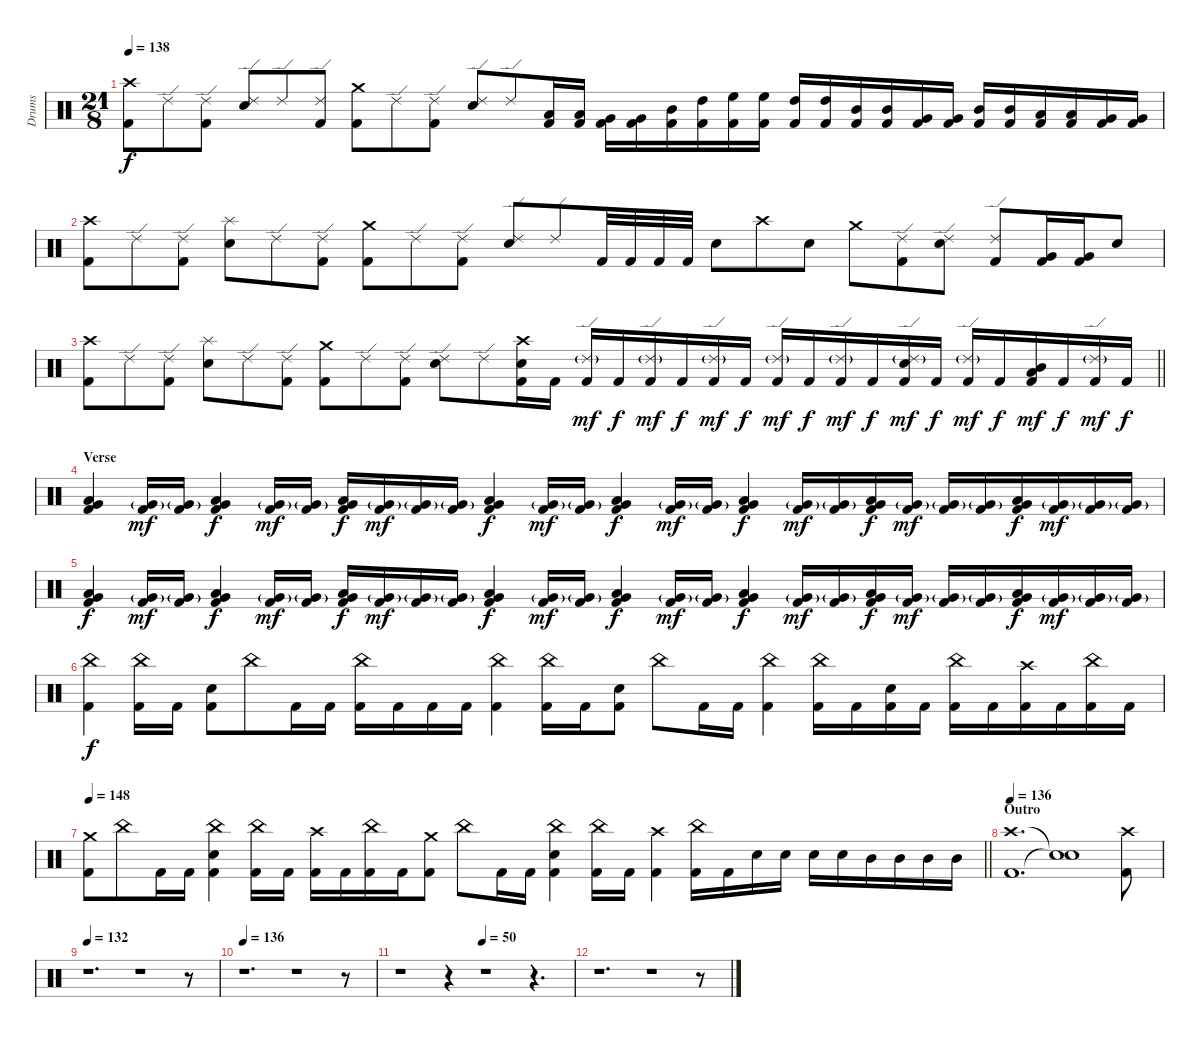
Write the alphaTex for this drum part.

\track ("Drums" "Drums") {instrument percussion}
\staff {score}
\articulation defaults
\ts (21 8)
\tempo 138
\clef neutral
\ks c
("Crash high (hit)" "Kick (hit) 2").8{dy f} "Ride (edge) 2".8 ("Ride (edge) 2" "Kick (hit) 2").8 ("Ride (edge) 2" "Snare (hit) 2").8 "Ride (edge) 2".8 ("Ride (edge) 2" "Kick (hit) 2").8 ("Crash medium (hit)" "Kick (hit) 2").8 "Ride (edge) 2".8 ("Ride (edge) 2" "Kick (hit) 2").8 ("Ride (edge) 2" "Snare (hit) 2").8 "Ride (edge) 2".8 ("Low Floor Tom (hit)" "Kick (hit) 2").16 ("Low Floor Tom (hit)" "Kick (hit) 2").16 ("Very Low Tom (hit)" "Kick (hit) 2").16 ("Very Low Tom (hit)" "Kick (hit) 2").16 ("Mid Tom (hit)" "Kick (hit) 2").16 ("High Tom (hit)" "Kick (hit) 2").16 ("High Floor Tom (hit)" "Kick (hit) 2").16 ("High Floor Tom (hit)" "Kick (hit) 2").16 ("High Tom (hit)" "Kick (hit) 2").16 ("High Tom (hit)" "Kick (hit) 2").16 ("Mid Tom (hit)" "Kick (hit) 2").16 ("Mid Tom (hit)" "Kick (hit) 2").16 ("Very Low Tom (hit)" "Kick (hit) 2").16 ("Very Low Tom (hit)" "Kick (hit) 2").16 ("Mid Tom (hit)" "Kick (hit) 2").16 ("Mid Tom (hit)" "Kick (hit) 2").16 ("Low Tom (hit)" "Kick (hit) 2").16 ("Low Tom (hit)" "Kick (hit) 2").16 ("Very Low Tom (hit)" "Kick (hit) 2").16 ("Very Low Tom (hit)" "Kick (hit) 2").16 |
("Crash high (hit)" "Kick (hit) 2").8 "Ride (edge) 2".8 ("Ride (edge) 2" "Kick (hit) 2").8 ("Splash (hit)" "Snare (hit) 2").8 "Ride (edge) 2".8 ("Ride (edge) 2" "Kick (hit) 2").8 ("Crash medium (hit)" "Kick (hit) 2").8 "Ride (edge) 2".8 ("Ride (edge) 2" "Kick (hit) 2").8 ("Ride (edge) 2" "Snare (hit) 2").8 "Ride (edge) 2".8 "Kick (hit) 2".32 "Kick (hit) 2".32 "Kick (hit) 2".32 "Kick (hit) 2".32 "Snare (hit) 2".8 "Crash high (hit)".8 "Snare (hit) 2".8 "Crash medium (hit)".8 ("Ride (edge) 2" "Kick (hit) 2").8 ("Ride (edge) 2" "Snare (hit) 2").8 ("Ride (edge) 2" "Kick (hit) 2").8 ("Very Low Tom (hit)" "Kick (hit) 2").16 ("Very Low Tom (hit)" "Kick (hit) 2").16 "Snare (hit) 2".8 |
\barLineRight lightlight
("Crash high (hit)" "Kick (hit) 2").8 "Ride (edge) 2".8 ("Ride (edge) 2" "Kick (hit) 2").8 ("Splash (hit)" "Snare (hit) 2").8 "Ride (edge) 2".8 ("Ride (edge) 2" "Kick (hit) 2").8 ("Crash medium (hit)" "Kick (hit) 2").8 "Ride (edge) 2".8 ("Ride (edge) 2" "Kick (hit) 2").8 ("Ride (edge) 2" "Snare (hit) 2").8 "Ride (edge) 2".8 ("Crash high (hit)" "Snare (hit) 2" "Kick (hit) 2").16 "Kick (hit) 2".16 ("Ride (edge) 2"{g} "Kick (hit) 2").16{dy mf} "Kick (hit) 2".16{dy f} ("Ride (edge) 2"{g} "Kick (hit) 2").16{dy mf} "Kick (hit) 2".16{dy f} ("Ride (edge) 2"{g} "Kick (hit) 2").16{dy mf} "Kick (hit) 2".16{dy f} ("Ride (edge) 2"{g} "Kick (hit) 2").16{dy mf} "Kick (hit) 2".16{dy f} ("Ride (edge) 2"{g} "Kick (hit) 2").16{dy mf} "Kick (hit) 2".16{dy f} ("Ride (edge) 2"{g} "Snare (hit) 2" "Kick (hit) 2").16{dy mf} "Kick (hit) 2".16{dy f} ("Ride (edge) 2"{g} "Kick (hit) 2").16{dy mf} "Kick (hit) 2".16{dy f} ("Mid Tom (hit)" "Low Tom (hit)" "Kick (hit) 2").16{bd 240 dy mf} "Kick (hit) 2".16{dy f} ("Ride (edge) 2"{g} "Kick (hit) 2").16{dy mf} "Kick (hit) 2".16{dy f} |
\section ("" "Verse")
("Low Tom (hit)" "Very Low Tom (hit)" "Kick (hit) 2").4 ("Very Low Tom (hit)"{g} "Kick (hit) 2").16{dy mf} ("Very Low Tom (hit)"{g} "Kick (hit) 2").16 ("Low Tom (hit)" "Very Low Tom (hit)" "Kick (hit) 2").4{dy f} ("Very Low Tom (hit)"{g} "Kick (hit) 2").16{dy mf} ("Very Low Tom (hit)"{g} "Kick (hit) 2").16 ("Low Tom (hit)" "Very Low Tom (hit)" "Kick (hit) 2").16{dy f} ("Very Low Tom (hit)"{g} "Kick (hit) 2").16{dy mf} ("Very Low Tom (hit)"{g} "Kick (hit) 2").16 ("Very Low Tom (hit)"{g} "Kick (hit) 2").16 ("Low Tom (hit)" "Very Low Tom (hit)" "Kick (hit) 2").4{dy f} ("Very Low Tom (hit)"{g} "Kick (hit) 2").16{dy mf} ("Very Low Tom (hit)"{g} "Kick (hit) 2").16 ("Low Tom (hit)" "Very Low Tom (hit)" "Kick (hit) 2").4{dy f} ("Very Low Tom (hit)"{g} "Kick (hit) 2").16{dy mf} ("Very Low Tom (hit)"{g} "Kick (hit) 2").16 ("Low Tom (hit)" "Very Low Tom (hit)" "Kick (hit) 2").4{dy f} ("Very Low Tom (hit)"{g} "Kick (hit) 2").16{dy mf} ("Very Low Tom (hit)"{g} "Kick (hit) 2").16 ("Low Tom (hit)" "Very Low Tom (hit)" "Kick (hit) 2").16{dy f} ("Very Low Tom (hit)"{g} "Kick (hit) 2").16{dy mf} ("Very Low Tom (hit)"{g} "Kick (hit) 2").16 ("Very Low Tom (hit)"{g} "Kick (hit) 2").16 ("Low Tom (hit)" "Very Low Tom (hit)" "Kick (hit) 2").16{dy f} ("Very Low Tom (hit)"{g} "Kick (hit) 2").16{dy mf} ("Very Low Tom (hit)"{g} "Kick (hit) 2").16 ("Very Low Tom (hit)"{g} "Kick (hit) 2").16 |
("Low Tom (hit)" "Very Low Tom (hit)" "Kick (hit) 2").4{dy f} ("Very Low Tom (hit)"{g} "Kick (hit) 2").16{dy mf} ("Very Low Tom (hit)"{g} "Kick (hit) 2").16 ("Low Tom (hit)" "Very Low Tom (hit)" "Kick (hit) 2").4{dy f} ("Very Low Tom (hit)"{g} "Kick (hit) 2").16{dy mf} ("Very Low Tom (hit)"{g} "Kick (hit) 2").16 ("Low Tom (hit)" "Very Low Tom (hit)" "Kick (hit) 2").16{dy f} ("Very Low Tom (hit)"{g} "Kick (hit) 2").16{dy mf} ("Very Low Tom (hit)"{g} "Kick (hit) 2").16 ("Very Low Tom (hit)"{g} "Kick (hit) 2").16 ("Low Tom (hit)" "Very Low Tom (hit)" "Kick (hit) 2").4{dy f} ("Very Low Tom (hit)"{g} "Kick (hit) 2").16{dy mf} ("Very Low Tom (hit)"{g} "Kick (hit) 2").16 ("Low Tom (hit)" "Very Low Tom (hit)" "Kick (hit) 2").4{dy f} ("Very Low Tom (hit)"{g} "Kick (hit) 2").16{dy mf} ("Very Low Tom (hit)"{g} "Kick (hit) 2").16 ("Low Tom (hit)" "Very Low Tom (hit)" "Kick (hit) 2").4{dy f} ("Very Low Tom (hit)"{g} "Kick (hit) 2").16{dy mf} ("Very Low Tom (hit)"{g} "Kick (hit) 2").16 ("Low Tom (hit)" "Very Low Tom (hit)" "Kick (hit) 2").16{dy f} ("Very Low Tom (hit)"{g} "Kick (hit) 2").16{dy mf} ("Very Low Tom (hit)"{g} "Kick (hit) 2").16 ("Very Low Tom (hit)"{g} "Kick (hit) 2").16 ("Low Tom (hit)" "Very Low Tom (hit)" "Kick (hit) 2").16{dy f} ("Very Low Tom (hit)"{g} "Kick (hit) 2").16{dy mf} ("Very Low Tom (hit)"{g} "Kick (hit) 2").16 ("Very Low Tom (hit)"{g} "Kick (hit) 2").16 |
("China (hit)" "Kick (hit) 2").4{dy f} ("China (hit)" "Kick (hit) 2").16 "Kick (hit) 2".16 ("Snare (hit) 2" "Kick (hit) 2").8 "China (hit)".8 "Kick (hit) 2".16 "Kick (hit) 2".16 ("China (hit)" "Kick (hit) 2").16 "Kick (hit) 2".16 "Kick (hit) 2".16 "Kick (hit) 2".16 ("China (hit)" "Kick (hit) 2").4 ("China (hit)" "Kick (hit) 2").16 "Kick (hit) 2".16 ("Snare (hit) 2" "Kick (hit) 2").8 "China (hit)".8 "Kick (hit) 2".16 "Kick (hit) 2".16 ("China (hit)" "Kick (hit) 2").4 ("China (hit)" "Kick (hit) 2").16 "Kick (hit) 2".16 ("Snare (hit) 2" "Kick (hit) 2").16 "Kick (hit) 2".16 ("China (hit)" "Kick (hit) 2").16 "Kick (hit) 2".16 ("Crash high (hit)" "Kick (hit) 2").16 "Kick (hit) 2".16 ("China (hit)" "Kick (hit) 2").16 "Kick (hit) 2".16 |
\tempo 148
\barLineRight lightlight
("Crash medium (hit)" "Kick (hit) 2").8 "China (hit)".8 "Kick (hit) 2".16 "Kick (hit) 2".16 ("China (hit)" "Snare (hit) 2" "Kick (hit) 2").4 ("China (hit)" "Kick (hit) 2").16 "Kick (hit) 2".16 ("Crash high (hit)" "Kick (hit) 2").16 "Kick (hit) 2".16 ("China (hit)" "Kick (hit) 2").16 "Kick (hit) 2".16 ("Crash medium (hit)" "Kick (hit) 2").8 "China (hit)".8 "Kick (hit) 2".16 "Kick (hit) 2".16 ("China (hit)" "Snare (hit) 2" "Kick (hit) 2").4 ("China (hit)" "Kick (hit) 2").16 "Kick (hit) 2".16 ("Crash high (hit)" "Kick (hit) 2").4 ("China (hit)" "Kick (hit) 2").16 "Kick (hit) 2".16 "Snare (hit) 2".16 "Snare (hit) 2".16 "Snare (hit) 2".16 "Snare (hit) 2".16 "Mid Tom (hit)".16 "Mid Tom (hit)".16 "Mid Tom (hit)".16 "Mid Tom (hit)".16 |
\section ("" "Outro")
\tempo 136
("Crash high (hit)" "Kick (hit) 2").1{d} ("Snare (hit)"{t} "Snare (hit)"{t}).1 ("Crash high (hit)" "Kick (hit) 2").8 |
\tempo 132
r.1{d} r.1 r.8 |
\tempo 136
r.1{d} r.1 r.8 |
\tempo (50 0.47619047619047616)
r.1 r.4 r.1 r.4{d} |
r.1{d} r.1 r.8
